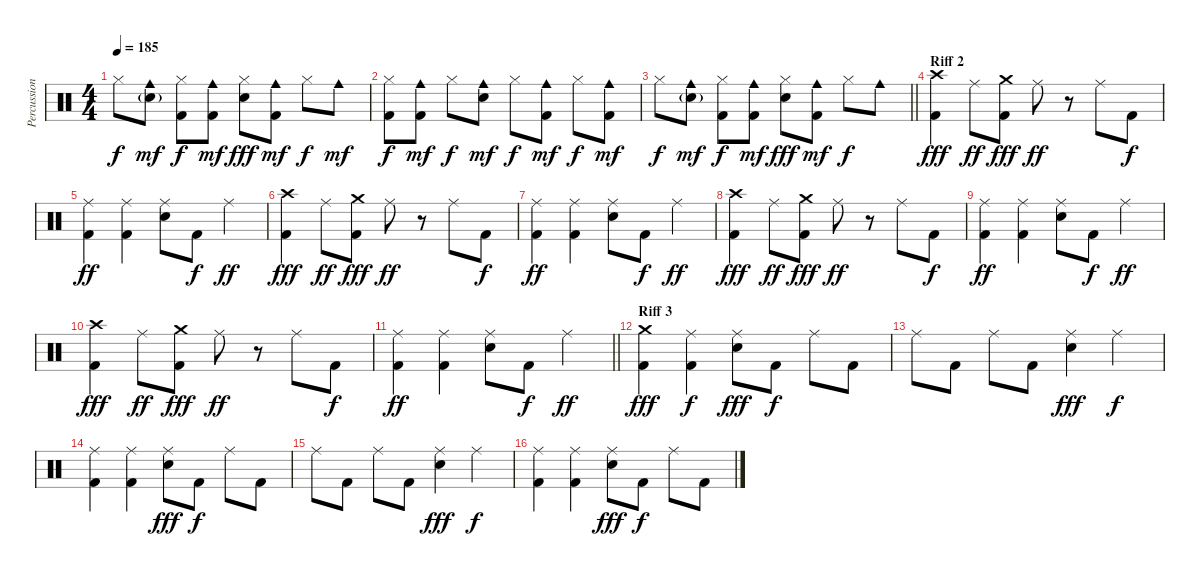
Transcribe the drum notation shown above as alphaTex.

\track ("Percussions" "Percussion") {instrument percussion}
\staff {score}
\articulation defaults
\ts (4 4)
\tempo 185
\clef neutral
\ks c "Hi-Hat (closed)".8{dy f}
("Electric Snare (hit)"{g} "Cowbell medium (hit)").8{dy mf} ("Kick (hit) 2" "Hi-Hat (closed)").8{dy f} ("Kick (hit) 2" "Cowbell medium (hit)").8{dy mf} ("Electric Snare (hit)" "Hi-Hat (closed)").8{dy fff} ("Kick (hit) 2" "Cowbell medium (hit)").8{dy mf} "Hi-Hat (closed)".8{dy f} "Cowbell medium (hit)".8{dy mf} |
("Kick (hit) 2" "Hi-Hat (closed)").8{dy f} ("Kick (hit) 2" "Cowbell medium (hit)").8{dy mf} "Hi-Hat (closed)".8{dy f} ("Electric Snare (hit)" "Cowbell medium (hit)").8{dy mf} "Hi-Hat (closed)".8{dy f} ("Kick (hit) 2" "Cowbell medium (hit)").8{dy mf} "Hi-Hat (closed)".8{dy f} ("Kick (hit) 2" "Cowbell medium (hit)").8{dy mf} |
\barLineRight lightlight "Hi-Hat (closed)".8{dy f}
("Electric Snare (hit)"{g} "Cowbell medium (hit)").8{dy mf} ("Kick (hit) 2" "Hi-Hat (closed)").8{dy f} ("Kick (hit) 2" "Cowbell medium (hit)").8{dy mf} ("Electric Snare (hit)" "Hi-Hat (closed)").8{dy fff} ("Kick (hit) 2" "Cowbell medium (hit)").8{dy mf} "Hi-Hat (closed)".8{dy f} "Cowbell medium (hit)".8 |
\section ("" "Riff 2")
("Crash high (hit)" "Kick (hit) 2").4{dy fff} "Ride (middle)".8{dy ff} ("Crash medium (hit)" "Kick (hit) 2").8{dy fff} "Ride (middle)".8{dy ff} r.8 "Ride (middle)".8 "Kick (hit) 2".8{dy f} |
("Kick (hit) 2" "Ride (middle)").4{dy ff} ("Kick (hit) 2" "Ride (middle)").4 ("Electric Snare (hit)" "Ride (middle)").8 "Kick (hit) 2".8{dy f} "Ride (middle)".4{dy ff} |
("Crash high (hit)" "Kick (hit) 2").4{dy fff} "Ride (middle)".8{dy ff} ("Crash medium (hit)" "Kick (hit) 2").8{dy fff} "Ride (middle)".8{dy ff} r.8 "Ride (middle)".8 "Kick (hit) 2".8{dy f} |
("Kick (hit) 2" "Ride (middle)").4{dy ff} ("Kick (hit) 2" "Ride (middle)").4 ("Electric Snare (hit)" "Ride (middle)").8 "Kick (hit) 2".8{dy f} "Ride (middle)".4{dy ff} |
("Crash high (hit)" "Kick (hit) 2").4{dy fff} "Ride (middle)".8{dy ff} ("Crash medium (hit)" "Kick (hit) 2").8{dy fff} "Ride (middle)".8{dy ff} r.8 "Ride (middle)".8 "Kick (hit) 2".8{dy f} |
("Kick (hit) 2" "Ride (middle)").4{dy ff} ("Kick (hit) 2" "Ride (middle)").4 ("Electric Snare (hit)" "Ride (middle)").8 "Kick (hit) 2".8{dy f} "Ride (middle)".4{dy ff} |
("Crash high (hit)" "Kick (hit) 2").4{dy fff} "Ride (middle)".8{dy ff} ("Crash medium (hit)" "Kick (hit) 2").8{dy fff} "Ride (middle)".8{dy ff} r.8 "Ride (middle)".8 "Kick (hit) 2".8{dy f} |
\barLineRight lightlight
("Kick (hit) 2" "Ride (middle)").4{dy ff} ("Kick (hit) 2" "Ride (middle)").4 ("Electric Snare (hit)" "Ride (middle)").8 "Kick (hit) 2".8{dy f} "Ride (middle)".4{dy ff} |
\section ("" "Riff 3")
("Crash medium (hit)" "Kick (hit) 2").4{dy fff} ("Kick (hit) 2" "Ride (middle)").4{dy f} ("Electric Snare (hit)" "Ride (middle)").8{dy fff} "Kick (hit) 2".8{dy f} "Ride (middle)".8 "Kick (hit) 2".8 |
"Ride (middle)".8 "Kick (hit) 2".8 "Ride (middle)".8 "Kick (hit) 2".8 ("Electric Snare (hit)" "Ride (middle)").4{dy fff} "Ride (middle)".4{dy f} |
("Kick (hit) 2" "Ride (middle)").4 ("Kick (hit) 2" "Ride (middle)").4 ("Electric Snare (hit)" "Ride (middle)").8{dy fff} "Kick (hit) 2".8{dy f} "Ride (middle)".8 "Kick (hit) 2".8 |
"Ride (middle)".8 "Kick (hit) 2".8 "Ride (middle)".8 "Kick (hit) 2".8 ("Electric Snare (hit)" "Ride (middle)").4{dy fff} "Ride (middle)".4{dy f} |
("Kick (hit) 2" "Ride (middle)").4 ("Kick (hit) 2" "Ride (middle)").4 ("Electric Snare (hit)" "Ride (middle)").8{dy fff} "Kick (hit) 2".8{dy f} "Ride (middle)".8 "Kick (hit) 2".8
